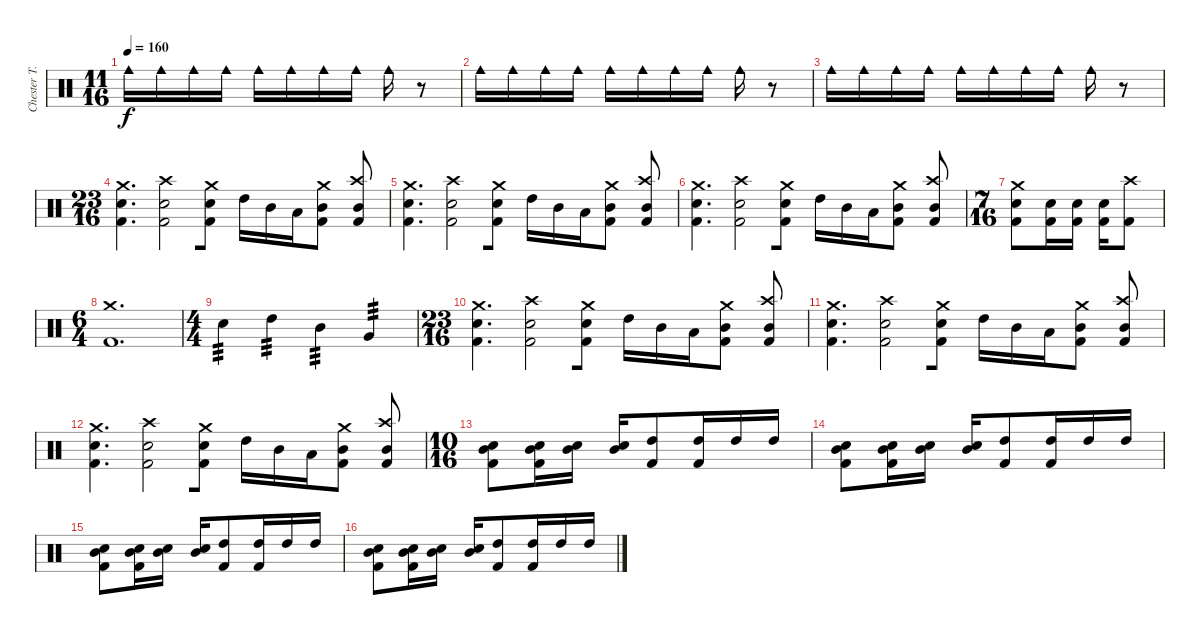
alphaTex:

\track ("Chester T." "Chester T.") {instrument percussion}
\staff {score}
\articulation defaults
\ts (11 16)
\tempo 160
\clef neutral
\ks c "Cowbell medium (hit)".16{dy f} "Cowbell medium (hit)".16{beam merge} "Cowbell medium (hit)".16{beam merge} "Cowbell medium (hit)".16 "Cowbell medium (hit)".16{beam merge} "Cowbell medium (hit)".16 "Cowbell medium (hit)".16{beam merge} "Cowbell medium (hit)".16 "Cowbell medium (hit)".16{beam merge}
r.8 |
"Cowbell medium (hit)".16 "Cowbell medium (hit)".16{beam merge} "Cowbell medium (hit)".16{beam merge} "Cowbell medium (hit)".16 "Cowbell medium (hit)".16{beam merge} "Cowbell medium (hit)".16 "Cowbell medium (hit)".16{beam merge} "Cowbell medium (hit)".16 "Cowbell medium (hit)".16{beam merge} r.8 |
"Cowbell medium (hit)".16 "Cowbell medium (hit)".16{beam merge} "Cowbell medium (hit)".16{beam merge} "Cowbell medium (hit)".16 "Cowbell medium (hit)".16{beam merge} "Cowbell medium (hit)".16 "Cowbell medium (hit)".16{beam merge} "Cowbell medium (hit)".16 "Cowbell medium (hit)".16{beam merge} r.8 |
\ts (23 16)
("Crash medium (hit)" "Electric Snare (hit)" "Kick (hit) 2").4{d} ("Crash high (hit)" "Electric Snare (hit)" "Kick (hit) 2").2{beam merge} ("Crash medium (hit)" "Electric Snare (hit)" "Kick (hit) 2").8 "High Tom (hit)".16 "Mid Tom (hit)".16 "Low Tom (hit)".16 ("Crash medium (hit)" "Mid Tom (hit)" "Kick (hit) 2").8 ("Crash high (hit)" "Mid Tom (hit)" "Kick (hit) 2").8 |
("Crash medium (hit)" "Electric Snare (hit)" "Kick (hit) 2").4{d} ("Crash high (hit)" "Electric Snare (hit)" "Kick (hit) 2").2{beam merge} ("Crash medium (hit)" "Electric Snare (hit)" "Kick (hit) 2").8 "High Tom (hit)".16 "Mid Tom (hit)".16 "Low Tom (hit)".16 ("Crash medium (hit)" "Mid Tom (hit)" "Kick (hit) 2").8 ("Crash high (hit)" "Mid Tom (hit)" "Kick (hit) 2").8 |
("Crash medium (hit)" "Electric Snare (hit)" "Kick (hit) 2").4{d} ("Crash high (hit)" "Electric Snare (hit)" "Kick (hit) 2").2{beam merge} ("Crash medium (hit)" "Electric Snare (hit)" "Kick (hit) 2").8 "High Tom (hit)".16 "Mid Tom (hit)".16 "Low Tom (hit)".16 ("Crash medium (hit)" "Mid Tom (hit)" "Kick (hit) 2").8 ("Crash high (hit)" "Mid Tom (hit)" "Kick (hit) 2").8 |
\ts (7 16)
("Crash medium (hit)" "Electric Snare (hit)" "Kick (hit) 2").8 ("Electric Snare (hit)" "Kick (hit) 2").16 ("Electric Snare (hit)" "Kick (hit) 2").16 ("Electric Snare (hit)" "Kick (hit) 2").16 ("Crash high (hit)" "Kick (hit) 2").8 |
\ts (6 4)
("Crash medium (hit)" "Kick (hit) 2").1{d} |
\ts (4 4)
"Electric Snare (hit)".4{tp 3 beam merge} "High Tom (hit)".4{tp 3} "Mid Tom (hit)".4{tp 3} "Very Low Tom (hit)".4{tp 3} |
\ts (23 16)
("Crash medium (hit)" "Electric Snare (hit)" "Kick (hit) 2").4{d} ("Crash high (hit)" "Electric Snare (hit)" "Kick (hit) 2").2{beam merge} ("Crash medium (hit)" "Electric Snare (hit)" "Kick (hit) 2").8 "High Tom (hit)".16 "Mid Tom (hit)".16 "Low Tom (hit)".16 ("Crash medium (hit)" "Mid Tom (hit)" "Kick (hit) 2").8 ("Crash high (hit)" "Mid Tom (hit)" "Kick (hit) 2").8 |
("Crash medium (hit)" "Electric Snare (hit)" "Kick (hit) 2").4{d} ("Crash high (hit)" "Electric Snare (hit)" "Kick (hit) 2").2{beam merge} ("Crash medium (hit)" "Electric Snare (hit)" "Kick (hit) 2").8 "High Tom (hit)".16 "Mid Tom (hit)".16 "Low Tom (hit)".16 ("Crash medium (hit)" "Mid Tom (hit)" "Kick (hit) 2").8 ("Crash high (hit)" "Mid Tom (hit)" "Kick (hit) 2").8 |
("Crash medium (hit)" "Electric Snare (hit)" "Kick (hit) 2").4{d} ("Crash high (hit)" "Electric Snare (hit)" "Kick (hit) 2").2{beam merge} ("Crash medium (hit)" "Electric Snare (hit)" "Kick (hit) 2").8 "High Tom (hit)".16 "Mid Tom (hit)".16 "Low Tom (hit)".16 ("Crash medium (hit)" "Mid Tom (hit)" "Kick (hit) 2").8 ("Crash high (hit)" "Mid Tom (hit)" "Kick (hit) 2").8 |
\ts (10 16)
("Mid Tom (hit)" "Electric Snare (hit)" "Kick (hit) 2").8{beam merge} ("Mid Tom (hit)" "Electric Snare (hit)" "Kick (hit) 2").16{beam merge} ("Mid Tom (hit)" "Electric Snare (hit)").16 ("Mid Tom (hit)" "Electric Snare (hit)").16 ("High Tom (hit)" "Kick (hit) 2").8 ("High Tom (hit)" "Kick (hit) 2").16{beam merge} "High Tom (hit)".16 "High Tom (hit)".16 |
("Mid Tom (hit)" "Electric Snare (hit)" "Kick (hit) 2").8{beam merge} ("Mid Tom (hit)" "Electric Snare (hit)" "Kick (hit) 2").16{beam merge} ("Mid Tom (hit)" "Electric Snare (hit)").16 ("Mid Tom (hit)" "Electric Snare (hit)").16 ("High Tom (hit)" "Kick (hit) 2").8 ("High Tom (hit)" "Kick (hit) 2").16{beam merge} "High Tom (hit)".16 "High Tom (hit)".16 |
("Mid Tom (hit)" "Electric Snare (hit)" "Kick (hit) 2").8{beam merge} ("Mid Tom (hit)" "Electric Snare (hit)" "Kick (hit) 2").16{beam merge} ("Mid Tom (hit)" "Electric Snare (hit)").16 ("Mid Tom (hit)" "Electric Snare (hit)").16 ("High Tom (hit)" "Kick (hit) 2").8 ("High Tom (hit)" "Kick (hit) 2").16{beam merge} "High Tom (hit)".16 "High Tom (hit)".16 |
("Mid Tom (hit)" "Electric Snare (hit)" "Kick (hit) 2").8{beam merge} ("Mid Tom (hit)" "Electric Snare (hit)" "Kick (hit) 2").16{beam merge} ("Mid Tom (hit)" "Electric Snare (hit)").16 ("Mid Tom (hit)" "Electric Snare (hit)").16 ("High Tom (hit)" "Kick (hit) 2").8 ("High Tom (hit)" "Kick (hit) 2").16{beam merge} "High Tom (hit)".16 "High Tom (hit)".16
